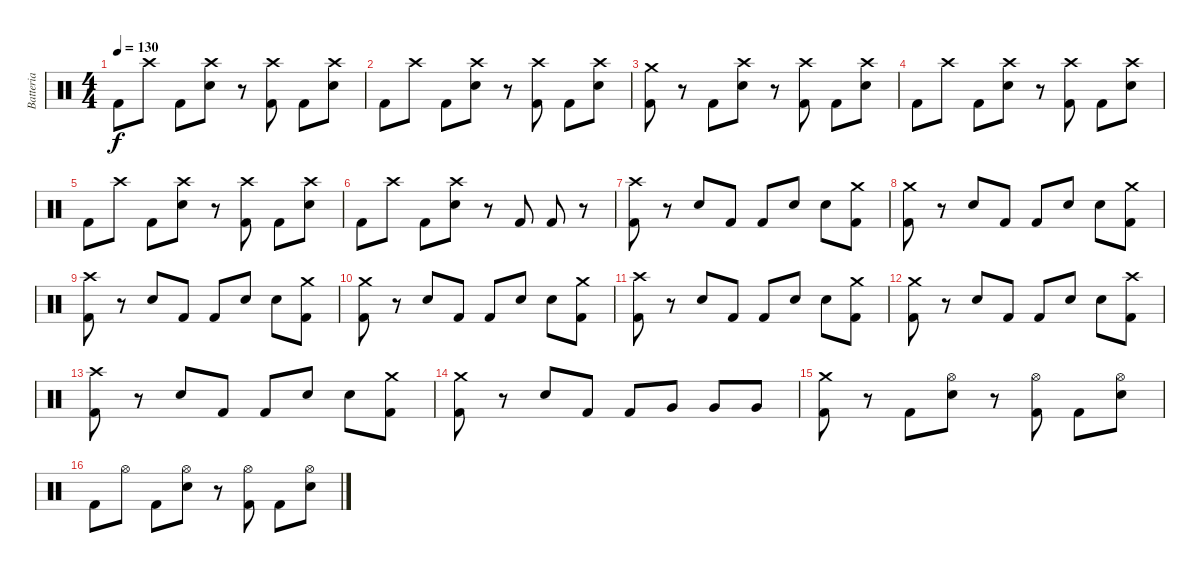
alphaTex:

\track ("Batteria" "Batteria") {instrument percussion}
\staff {score}
\articulation defaults
\ts (4 4)
\tempo 130
\clef neutral
\ks c "Kick (hit) 2".8{dy f} "Crash high (hit)".8 "Kick (hit) 2".8
("Crash high (hit)" "Electric Snare (hit)").8 r.8 ("Crash high (hit)" "Kick (hit) 2").8 "Kick (hit) 2".8 ("Crash high (hit)" "Electric Snare (hit)").8 |
"Kick (hit) 2".8 "Crash high (hit)".8 "Kick (hit) 2".8 ("Electric Snare (hit)" "Crash high (hit)").8 r.8 ("Kick (hit) 2" "Crash high (hit)").8 "Kick (hit) 2".8 ("Electric Snare (hit)" "Crash high (hit)").8 |
("Crash medium (hit)" "Kick (hit) 2").8 r.8 "Kick (hit) 2".8 ("Crash high (hit)" "Electric Snare (hit)").8 r.8 ("Crash high (hit)" "Kick (hit) 2").8 "Kick (hit) 2".8 ("Crash high (hit)" "Electric Snare (hit)").8 |
"Kick (hit) 2".8 "Crash high (hit)".8 "Kick (hit) 2".8 ("Electric Snare (hit)" "Crash high (hit)").8 r.8 ("Kick (hit) 2" "Crash high (hit)").8 "Kick (hit) 2".8 ("Electric Snare (hit)" "Crash high (hit)").8 |
"Kick (hit) 2".8 "Crash high (hit)".8 "Kick (hit) 2".8 ("Crash high (hit)" "Electric Snare (hit)").8 r.8 ("Crash high (hit)" "Kick (hit) 2").8 "Kick (hit) 2".8 ("Crash high (hit)" "Electric Snare (hit)").8 |
"Kick (hit) 2".8 "Crash high (hit)".8 "Kick (hit) 2".8 ("Electric Snare (hit)" "Crash high (hit)").8 r.8 "Kick (hit) 2".8 "Kick (hit) 2".8 r.8 |
("Crash high (hit)" "Kick (hit) 2").8 r.8 "Electric Snare (hit)".8 "Kick (hit) 2".8 "Kick (hit) 2".8 "Electric Snare (hit)".8 "Electric Snare (hit)".8 ("Crash medium (hit)" "Kick (hit) 2").8 |
("Crash medium (hit)" "Kick (hit) 2").8 r.8 "Electric Snare (hit)".8 "Kick (hit) 2".8 "Kick (hit) 2".8 "Electric Snare (hit)".8 "Electric Snare (hit)".8 ("Crash medium (hit)" "Kick (hit) 2").8 |
("Crash high (hit)" "Kick (hit) 2").8 r.8 "Electric Snare (hit)".8 "Kick (hit) 2".8 "Kick (hit) 2".8 "Electric Snare (hit)".8 "Electric Snare (hit)".8 ("Crash medium (hit)" "Kick (hit) 2").8 |
("Crash medium (hit)" "Kick (hit) 2").8 r.8 "Electric Snare (hit)".8 "Kick (hit) 2".8 "Kick (hit) 2".8 "Electric Snare (hit)".8 "Electric Snare (hit)".8 ("Crash medium (hit)" "Kick (hit) 2").8 |
("Crash high (hit)" "Kick (hit) 2").8 r.8 "Electric Snare (hit)".8 "Kick (hit) 2".8 "Kick (hit) 2".8 "Electric Snare (hit)".8 "Electric Snare (hit)".8 ("Crash medium (hit)" "Kick (hit) 2").8 |
("Crash medium (hit)" "Kick (hit) 2").8 r.8 "Electric Snare (hit)".8 "Kick (hit) 2".8 "Kick (hit) 2".8 "Electric Snare (hit)".8 "Electric Snare (hit)".8 ("Crash high (hit)" "Kick (hit) 2").8 |
("Crash high (hit)" "Kick (hit) 2").8 r.8 "Electric Snare (hit)".8 "Kick (hit) 2".8 "Kick (hit) 2".8 "Electric Snare (hit)".8 "Electric Snare (hit)".8 ("Crash medium (hit)" "Kick (hit) 2").8 |
("Crash medium (hit)" "Kick (hit) 2").8 r.8 "Electric Snare (hit)".8 "Kick (hit) 2".8 "Kick (hit) 2".8 "Very Low Tom (hit)".8 "Very Low Tom (hit)".8 "Very Low Tom (hit)".8 |
("Crash medium (hit)" "Kick (hit) 2").8 r.8 "Kick (hit) 2".8 ("Hi-Hat (open)" "Electric Snare (hit)").8 r.8 ("Hi-Hat (open)" "Kick (hit) 2").8 "Kick (hit) 2".8 ("Hi-Hat (open)" "Electric Snare (hit)").8 |
"Kick (hit) 2".8 "Hi-Hat (open)".8 "Kick (hit) 2".8 ("Electric Snare (hit)" "Hi-Hat (open)").8 r.8 ("Kick (hit) 2" "Hi-Hat (open)").8 "Kick (hit) 2".8 ("Electric Snare (hit)" "Hi-Hat (open)").8
